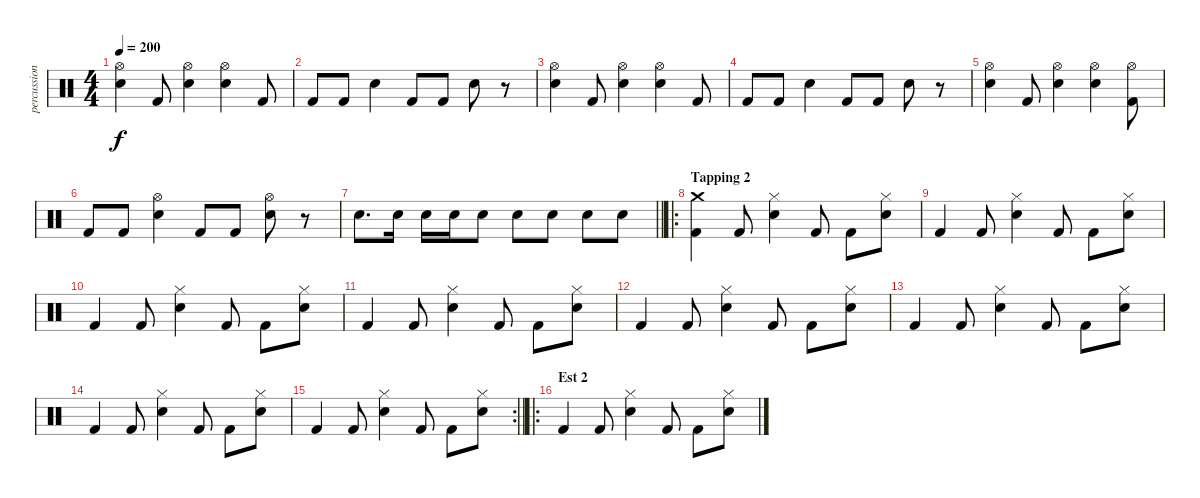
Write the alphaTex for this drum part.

\track ("percussion" "percussion") {instrument percussion}
\staff {score}
\articulation defaults
\ts (4 4)
\tempo 200
\clef neutral
\ks c
("Electric Snare (hit)" "Hi-Hat (open)").4{dy f} "Kick (hit) 2".8 ("Electric Snare (hit)" "Hi-Hat (open)").4 ("Electric Snare (hit)" "Hi-Hat (open)").4 "Kick (hit) 2".8 |
"Kick (hit) 2".8 "Kick (hit) 2".8 "Electric Snare (hit)".4 "Kick (hit) 2".8 "Kick (hit) 2".8 "Electric Snare (hit)".8 r.8 |
("Electric Snare (hit)" "Hi-Hat (open)").4 "Kick (hit) 2".8 ("Electric Snare (hit)" "Hi-Hat (open)").4 ("Electric Snare (hit)" "Hi-Hat (open)").4 "Kick (hit) 2".8 |
"Kick (hit) 2".8 "Kick (hit) 2".8 "Electric Snare (hit)".4 "Kick (hit) 2".8 "Kick (hit) 2".8 "Electric Snare (hit)".8 r.8 |
("Electric Snare (hit)" "Hi-Hat (open)").4 "Kick (hit) 2".8 ("Electric Snare (hit)" "Hi-Hat (open)").4 ("Electric Snare (hit)" "Hi-Hat (open)").4 ("Kick (hit) 2" "Hi-Hat (open)").8 |
"Kick (hit) 2".8 "Kick (hit) 2".8 ("Electric Snare (hit)" "Hi-Hat (open)").4 "Kick (hit) 2".8 "Kick (hit) 2".8 ("Electric Snare (hit)" "Hi-Hat (open)").8 r.8 |
\barLineRight lightlight "Electric Snare (hit)".8{d} "Electric Snare (hit)".16 "Electric Snare (hit)".16 "Electric Snare (hit)".16 "Electric Snare (hit)".8 "Electric Snare (hit)".8 "Electric Snare (hit)".8 "Electric Snare (hit)".8 "Electric Snare (hit)".8
|
\ro
\section ("" "Tapping 2")
("Kick (hit) 2" "Crash medium (hit)").4 "Kick (hit) 2".8 ("Electric Snare (hit)" "Hi-Hat (closed)").4 "Kick (hit) 2".8 "Kick (hit) 2".8 ("Electric Snare (hit)" "Hi-Hat (closed)").8 |
"Kick (hit) 2".4 "Kick (hit) 2".8 ("Electric Snare (hit)" "Hi-Hat (closed)").4 "Kick (hit) 2".8 "Kick (hit) 2".8 ("Electric Snare (hit)" "Hi-Hat (closed)").8 |
"Kick (hit) 2".4 "Kick (hit) 2".8 ("Electric Snare (hit)" "Hi-Hat (closed)").4 "Kick (hit) 2".8 "Kick (hit) 2".8 ("Electric Snare (hit)" "Hi-Hat (closed)").8 |
"Kick (hit) 2".4 "Kick (hit) 2".8 ("Electric Snare (hit)" "Hi-Hat (closed)").4 "Kick (hit) 2".8 "Kick (hit) 2".8 ("Electric Snare (hit)" "Hi-Hat (closed)").8 |
"Kick (hit) 2".4 "Kick (hit) 2".8 ("Electric Snare (hit)" "Hi-Hat (closed)").4 "Kick (hit) 2".8 "Kick (hit) 2".8 ("Electric Snare (hit)" "Hi-Hat (closed)").8 |
"Kick (hit) 2".4 "Kick (hit) 2".8 ("Electric Snare (hit)" "Hi-Hat (closed)").4 "Kick (hit) 2".8 "Kick (hit) 2".8 ("Electric Snare (hit)" "Hi-Hat (closed)").8 |
"Kick (hit) 2".4 "Kick (hit) 2".8 ("Electric Snare (hit)" "Hi-Hat (closed)").4 "Kick (hit) 2".8 "Kick (hit) 2".8 ("Electric Snare (hit)" "Hi-Hat (closed)").8 |
\rc 2
\barLineRight lightlight "Kick (hit) 2".4 "Kick (hit) 2".8
("Electric Snare (hit)" "Hi-Hat (closed)").4 "Kick (hit) 2".8 "Kick (hit) 2".8 ("Electric Snare (hit)" "Hi-Hat (closed)").8 |
\ro
\section ("" "Est 2")
"Kick (hit) 2".4 "Kick (hit) 2".8 ("Electric Snare (hit)" "Hi-Hat (closed)").4 "Kick (hit) 2".8 "Kick (hit) 2".8 ("Electric Snare (hit)" "Hi-Hat (closed)").8
